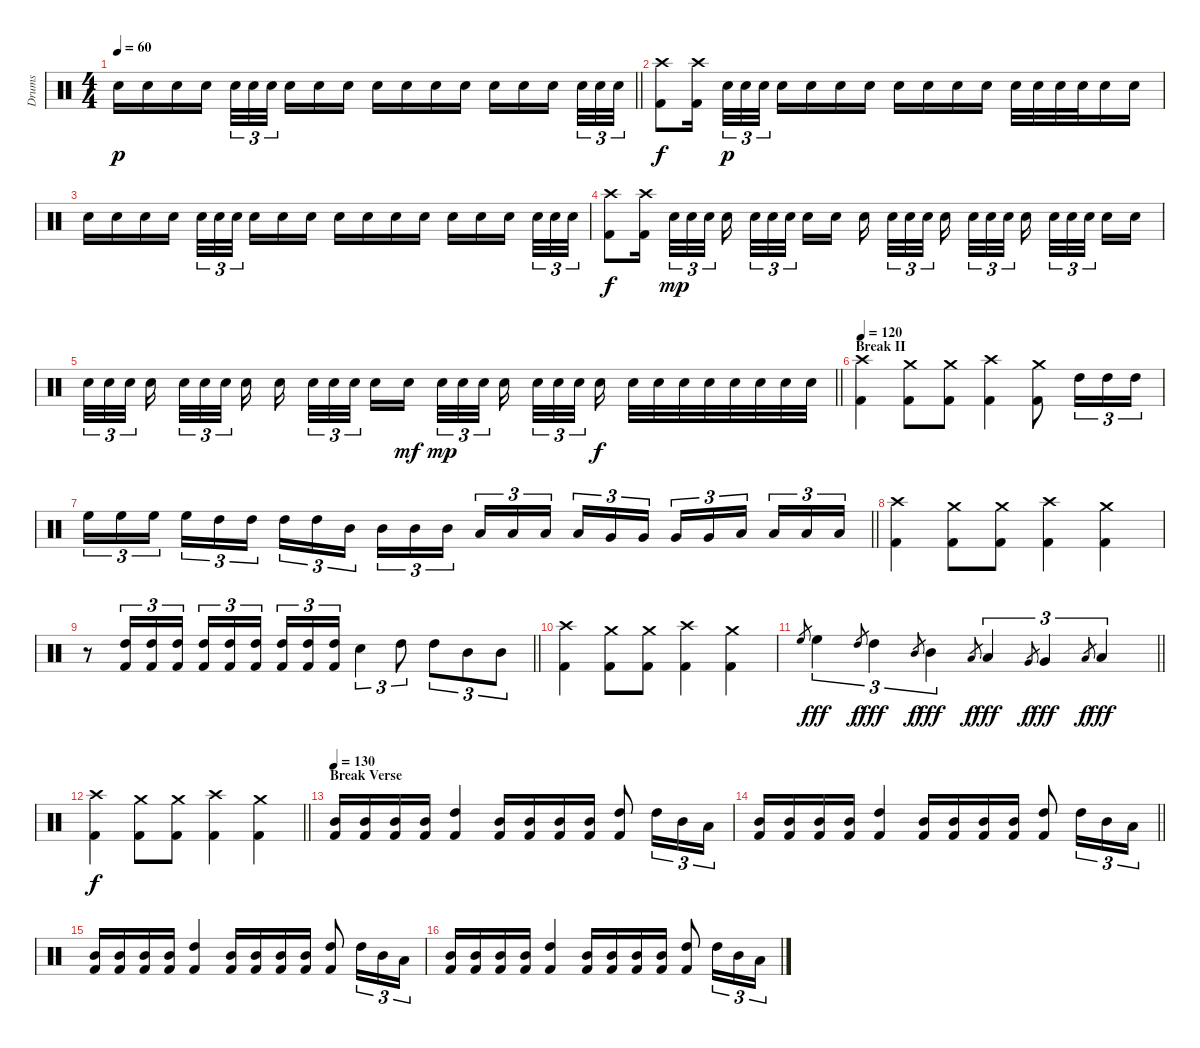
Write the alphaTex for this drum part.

\track ("Drums" "Drums") {instrument percussion}
\staff {score}
\articulation defaults
\ts (4 4)
\tempo 60
\clef neutral
\barLineRight lightlight
\ks c "Electric Snare (hit)".16{dy p} "Electric Snare (hit)".16 "Electric Snare (hit)".16 "Electric Snare (hit)".16 "Electric Snare (hit)".32{tu (3 2)} "Electric Snare (hit)".32{tu (3 2)} "Electric Snare (hit)".32{tu (3 2) beam splitsecondary} "Electric Snare (hit)".16 "Electric Snare (hit)".16 "Electric Snare (hit)".16 "Electric Snare (hit)".16 "Electric Snare (hit)".16 "Electric Snare (hit)".16 "Electric Snare (hit)".16 "Electric Snare (hit)".16 "Electric Snare (hit)".16 "Electric Snare (hit)".16{beam splitsecondary} "Electric Snare (hit)".32{tu (3 2)} "Electric Snare (hit)".32{tu (3 2)} "Electric Snare (hit)".32{tu (3 2)}
|
("Crash high (hit)" "Kick (hit) 2").8{dy f} ("Crash high (hit)" "Kick (hit) 2").16{beam splitsecondary} "Electric Snare (hit)".32{tu (3 2) dy p} "Electric Snare (hit)".32{tu (3 2)} "Electric Snare (hit)".32{tu (3 2)} "Electric Snare (hit)".16 "Electric Snare (hit)".16 "Electric Snare (hit)".16 "Electric Snare (hit)".16 "Electric Snare (hit)".16 "Electric Snare (hit)".16 "Electric Snare (hit)".16 "Electric Snare (hit)".16 "Electric Snare (hit)".32 "Electric Snare (hit)".32 "Electric Snare (hit)".32 "Electric Snare (hit)".32 "Electric Snare (hit)".16 "Electric Snare (hit)".16 |
"Electric Snare (hit)".16 "Electric Snare (hit)".16 "Electric Snare (hit)".16 "Electric Snare (hit)".16 "Electric Snare (hit)".32{tu (3 2)} "Electric Snare (hit)".32{tu (3 2)} "Electric Snare (hit)".32{tu (3 2) beam splitsecondary} "Electric Snare (hit)".16 "Electric Snare (hit)".16 "Electric Snare (hit)".16 "Electric Snare (hit)".16 "Electric Snare (hit)".16 "Electric Snare (hit)".16 "Electric Snare (hit)".16 "Electric Snare (hit)".16 "Electric Snare (hit)".16 "Electric Snare (hit)".16{beam splitsecondary} "Electric Snare (hit)".32{tu (3 2)} "Electric Snare (hit)".32{tu (3 2)} "Electric Snare (hit)".32{tu (3 2)} |
("Crash high (hit)" "Kick (hit) 2").8{dy f} ("Crash high (hit)" "Kick (hit) 2").16{beam splitsecondary} "Electric Snare (hit)".32{tu (3 2) dy mp} "Electric Snare (hit)".32{tu (3 2)} "Electric Snare (hit)".32{tu (3 2)} "Electric Snare (hit)".16{beam splitsecondary} "Electric Snare (hit)".32{tu (3 2)} "Electric Snare (hit)".32{tu (3 2)} "Electric Snare (hit)".32{tu (3 2) beam splitsecondary} "Electric Snare (hit)".16 "Electric Snare (hit)".16 "Electric Snare (hit)".16{beam splitsecondary} "Electric Snare (hit)".32{tu (3 2)} "Electric Snare (hit)".32{tu (3 2)} "Electric Snare (hit)".32{tu (3 2) beam splitsecondary} "Electric Snare (hit)".16{beam splitsecondary} "Electric Snare (hit)".32{tu (3 2)} "Electric Snare (hit)".32{tu (3 2)} "Electric Snare (hit)".32{tu (3 2)} "Electric Snare (hit)".16{beam splitsecondary} "Electric Snare (hit)".32{tu (3 2)} "Electric Snare (hit)".32{tu (3 2)} "Electric Snare (hit)".32{tu (3 2) beam splitsecondary} "Electric Snare (hit)".16 "Electric Snare (hit)".16 |
\barLineRight lightlight "Electric Snare (hit)".32{tu (3 2)} "Electric Snare (hit)".32{tu (3 2)} "Electric Snare (hit)".32{tu (3 2) beam splitsecondary} "Electric Snare (hit)".16{beam splitsecondary} "Electric Snare (hit)".32{tu (3 2)} "Electric Snare (hit)".32{tu (3 2)} "Electric Snare (hit)".32{tu (3 2) beam splitsecondary} "Electric Snare (hit)".16 "Electric Snare (hit)".16{beam splitsecondary} "Electric Snare (hit)".32{tu (3 2)} "Electric Snare (hit)".32{tu (3 2)} "Electric Snare (hit)".32{tu (3 2) beam splitsecondary} "Electric Snare (hit)".16 "Electric Snare (hit)".16{dy mf} "Electric Snare (hit)".32{tu (3 2) dy mp} "Electric Snare (hit)".32{tu (3 2)} "Electric Snare (hit)".32{tu (3 2) beam splitsecondary} "Electric Snare (hit)".16{beam splitsecondary} "Electric Snare (hit)".32{tu (3 2)} "Electric Snare (hit)".32{tu (3 2)} "Electric Snare (hit)".32{tu (3 2) beam splitsecondary} "Electric Snare (hit)".16{dy f} "Electric Snare (hit)".32 "Electric Snare (hit)".32 "Electric Snare (hit)".32 "Electric Snare (hit)".32 "Electric Snare (hit)".32 "Electric Snare (hit)".32 "Electric Snare (hit)".32 "Electric Snare (hit)".32
|
\section ("" "Break II")
\tempo 120
("Kick (hit) 2" "Crash high (hit)").4 ("Kick (hit) 2" "Crash medium (hit)").8 ("Kick (hit) 2" "Crash medium (hit)").8 ("Kick (hit) 2" "Crash high (hit)").4 ("Kick (hit) 2" "Crash medium (hit)").8 "High Tom (hit)".16{tu (3 2)} "High Tom (hit)".16{tu (3 2)} "High Tom (hit)".16{tu (3 2)} |
\barLineRight lightlight "High Floor Tom (hit)".16{tu (3 2)} "High Floor Tom (hit)".16{tu (3 2)} "High Floor Tom (hit)".16{tu (3 2) beam splitsecondary} "High Floor Tom (hit)".16{tu (3 2)} "High Tom (hit)".16{tu (3 2)} "High Tom (hit)".16{tu (3 2)} "High Tom (hit)".16{tu (3 2)} "High Tom (hit)".16{tu (3 2)} "Mid Tom (hit)".16{tu (3 2) beam splitsecondary} "Mid Tom (hit)".16{tu (3 2)} "Mid Tom (hit)".16{tu (3 2)} "Mid Tom (hit)".16{tu (3 2)} "Low Tom (hit)".16{tu (3 2)} "Low Tom (hit)".16{tu (3 2)} "Low Tom (hit)".16{tu (3 2) beam splitsecondary} "Low Tom (hit)".16{tu (3 2)} "Very Low Tom (hit)".16{tu (3 2)} "Very Low Tom (hit)".16{tu (3 2)} "Very Low Tom (hit)".16{tu (3 2)} "Very Low Tom (hit)".16{tu (3 2)} "Low Floor Tom (hit)".16{tu (3 2) beam splitsecondary} "Low Floor Tom (hit)".16{tu (3 2)} "Low Floor Tom (hit)".16{tu (3 2)} "Low Floor Tom (hit)".16{tu (3 2)}
|
("Kick (hit) 2" "Crash high (hit)").4 ("Kick (hit) 2" "Crash medium (hit)").8 ("Kick (hit) 2" "Crash medium (hit)").8 ("Kick (hit) 2" "Crash high (hit)").4 ("Kick (hit) 2" "Crash medium (hit)").4 |
\barLineRight lightlight
r.8 ("Kick (hit) 2" "High Tom (hit)").16{tu (3 2)} ("Kick (hit) 2" "High Tom (hit)").16{tu (3 2)} ("Kick (hit) 2" "High Tom (hit)").16{tu (3 2)} ("Kick (hit) 2" "High Tom (hit)").16{tu (3 2)} ("Kick (hit) 2" "High Tom (hit)").16{tu (3 2)} ("Kick (hit) 2" "High Tom (hit)").16{tu (3 2) beam splitsecondary} ("Kick (hit) 2" "High Tom (hit)").16{tu (3 2)} ("Kick (hit) 2" "High Tom (hit)").16{tu (3 2)} ("Kick (hit) 2" "High Tom (hit)").16{tu (3 2)} "Snare (hit) 2".4{tu (3 2)} "High Tom (hit)".8{tu (3 2)} "High Tom (hit)".8{tu (3 2)} "Mid Tom (hit)".8{tu (3 2)} "Mid Tom (hit)".8{tu (3 2)} |
("Kick (hit) 2" "Crash high (hit)").4 ("Kick (hit) 2" "Crash medium (hit)").8 ("Kick (hit) 2" "Crash medium (hit)").8 ("Kick (hit) 2" "Crash high (hit)").4 ("Kick (hit) 2" "Crash medium (hit)").4 |
\barLineRight lightlight "High Floor Tom (hit)".8{gr} "High Floor Tom (hit)".4{tu (3 2) dy fff} "High Tom (hit)".8{gr dy f} "High Tom (hit)".4{tu (3 2) dy fff} "Mid Tom (hit)".8{gr dy f} "Mid Tom (hit)".4{tu (3 2) dy fff} "Low Tom (hit)".8{gr dy f} "Low Tom (hit)".4{tu (3 2) dy fff} "Very Low Tom (hit)".8{gr dy f} "Very Low Tom (hit)".4{tu (3 2) dy fff} "Low Floor Tom (hit)".8{gr dy f} "Low Floor Tom (hit)".4{tu (3 2) dy fff}
|
\barLineRight lightlight
("Kick (hit) 2" "Crash high (hit)").4{dy f} ("Kick (hit) 2" "Crash medium (hit)").8 ("Kick (hit) 2" "Crash medium (hit)").8 ("Kick (hit) 2" "Crash high (hit)").4 ("Kick (hit) 2" "Crash medium (hit)").4 |
\section ("" "Break Verse")
\tempo 130
("Mid Tom (hit)" "Kick (hit) 2").16 ("Mid Tom (hit)" "Kick (hit) 2").16 ("Mid Tom (hit)" "Kick (hit) 2").16 ("Mid Tom (hit)" "Kick (hit) 2").16 ("High Tom (hit)" "Kick (hit) 2").4 ("Mid Tom (hit)" "Kick (hit) 2").16 ("Mid Tom (hit)" "Kick (hit) 2").16 ("Mid Tom (hit)" "Kick (hit) 2").16 ("Mid Tom (hit)" "Kick (hit) 2").16 ("High Tom (hit)" "Kick (hit) 2").8 "High Tom (hit)".16{tu (3 2)} "Mid Tom (hit)".16{tu (3 2)} "Low Tom (hit)".16{tu (3 2)} |
\barLineRight lightlight
("Mid Tom (hit)" "Kick (hit) 2").16 ("Mid Tom (hit)" "Kick (hit) 2").16 ("Mid Tom (hit)" "Kick (hit) 2").16 ("Mid Tom (hit)" "Kick (hit) 2").16 ("High Tom (hit)" "Kick (hit) 2").4 ("Mid Tom (hit)" "Kick (hit) 2").16 ("Mid Tom (hit)" "Kick (hit) 2").16 ("Mid Tom (hit)" "Kick (hit) 2").16 ("Mid Tom (hit)" "Kick (hit) 2").16 ("High Tom (hit)" "Kick (hit) 2").8 "High Tom (hit)".16{tu (3 2)} "Mid Tom (hit)".16{tu (3 2)} "Low Tom (hit)".16{tu (3 2)} |
("Mid Tom (hit)" "Kick (hit) 2").16 ("Mid Tom (hit)" "Kick (hit) 2").16 ("Mid Tom (hit)" "Kick (hit) 2").16 ("Mid Tom (hit)" "Kick (hit) 2").16 ("High Tom (hit)" "Kick (hit) 2").4 ("Mid Tom (hit)" "Kick (hit) 2").16 ("Mid Tom (hit)" "Kick (hit) 2").16 ("Mid Tom (hit)" "Kick (hit) 2").16 ("Mid Tom (hit)" "Kick (hit) 2").16 ("High Tom (hit)" "Kick (hit) 2").8 "High Tom (hit)".16{tu (3 2)} "Mid Tom (hit)".16{tu (3 2)} "Low Tom (hit)".16{tu (3 2)} |
("Mid Tom (hit)" "Kick (hit) 2").16 ("Mid Tom (hit)" "Kick (hit) 2").16 ("Mid Tom (hit)" "Kick (hit) 2").16 ("Mid Tom (hit)" "Kick (hit) 2").16 ("High Tom (hit)" "Kick (hit) 2").4 ("Mid Tom (hit)" "Kick (hit) 2").16 ("Mid Tom (hit)" "Kick (hit) 2").16 ("Mid Tom (hit)" "Kick (hit) 2").16 ("Mid Tom (hit)" "Kick (hit) 2").16 ("High Tom (hit)" "Kick (hit) 2").8 "High Tom (hit)".16{tu (3 2)} "Mid Tom (hit)".16{tu (3 2)} "Low Tom (hit)".16{tu (3 2)}
